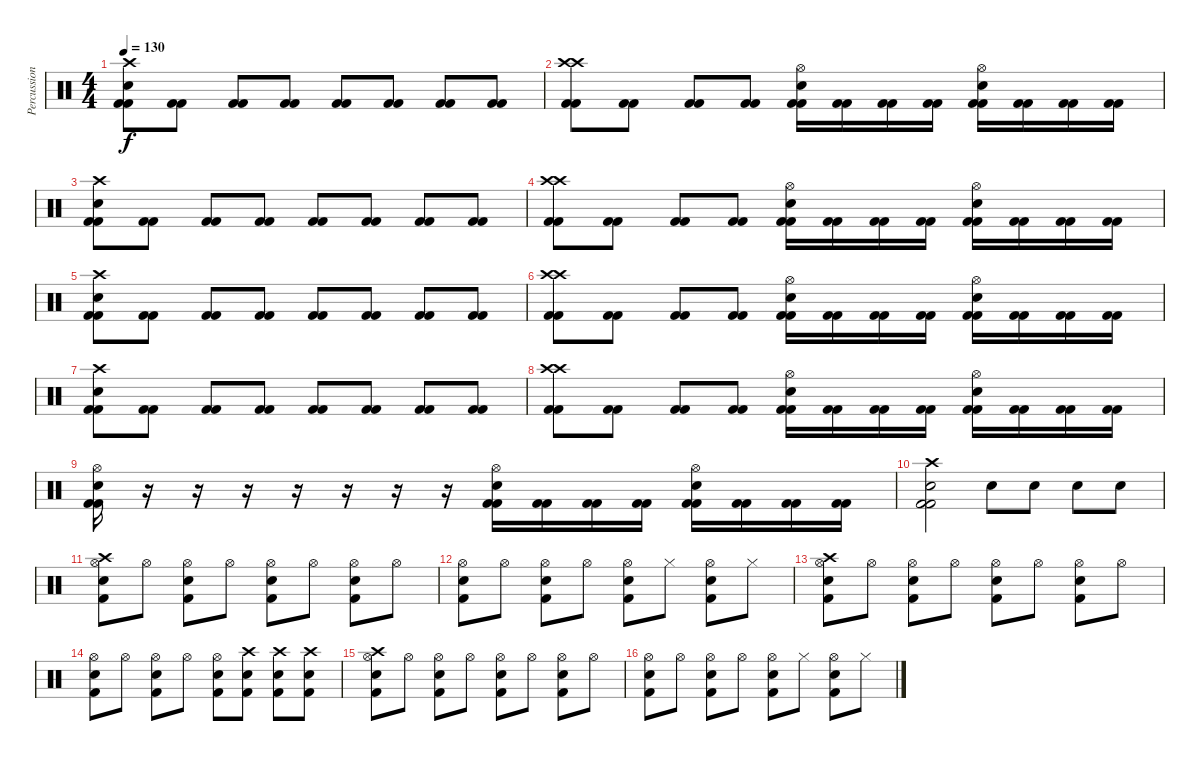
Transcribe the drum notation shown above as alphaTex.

\track ("Percussion" "Percussion") {instrument percussion}
\staff {score}
\articulation defaults
\ts (4 4)
\tempo 130
\clef neutral
\ks c
("Crash high (hit)" "Electric Snare (hit)" "Kick (hit) 2" "Kick (hit) 2").8{dy f} ("Kick (hit) 2" "Kick (hit) 2").8 ("Kick (hit) 2" "Kick (hit) 2").8 ("Kick (hit) 2" "Kick (hit) 2").8 ("Kick (hit) 2" "Kick (hit) 2").8 ("Kick (hit) 2" "Kick (hit) 2").8 ("Kick (hit) 2" "Kick (hit) 2").8 ("Kick (hit) 2" "Kick (hit) 2").8 |
("Crash high (hit)" "Crash high (hit)" "Kick (hit) 2" "Kick (hit) 2").8 ("Kick (hit) 2" "Kick (hit) 2").8 ("Kick (hit) 2" "Kick (hit) 2").8 ("Kick (hit) 2" "Kick (hit) 2").8 ("Hi-Hat (open)" "Electric Snare (hit)" "Kick (hit) 2" "Kick (hit) 2").16 ("Kick (hit) 2" "Kick (hit) 2").16 ("Kick (hit) 2" "Kick (hit) 2").16 ("Kick (hit) 2" "Kick (hit) 2").16 ("Hi-Hat (open)" "Electric Snare (hit)" "Kick (hit) 2" "Kick (hit) 2").16 ("Kick (hit) 2" "Kick (hit) 2").16 ("Kick (hit) 2" "Kick (hit) 2").16 ("Kick (hit) 2" "Kick (hit) 2").16 |
("Crash high (hit)" "Electric Snare (hit)" "Kick (hit) 2" "Kick (hit) 2").8 ("Kick (hit) 2" "Kick (hit) 2").8 ("Kick (hit) 2" "Kick (hit) 2").8 ("Kick (hit) 2" "Kick (hit) 2").8 ("Kick (hit) 2" "Kick (hit) 2").8 ("Kick (hit) 2" "Kick (hit) 2").8 ("Kick (hit) 2" "Kick (hit) 2").8 ("Kick (hit) 2" "Kick (hit) 2").8 |
("Crash high (hit)" "Crash high (hit)" "Kick (hit) 2" "Kick (hit) 2").8 ("Kick (hit) 2" "Kick (hit) 2").8 ("Kick (hit) 2" "Kick (hit) 2").8 ("Kick (hit) 2" "Kick (hit) 2").8 ("Hi-Hat (open)" "Electric Snare (hit)" "Kick (hit) 2" "Kick (hit) 2").16 ("Kick (hit) 2" "Kick (hit) 2").16 ("Kick (hit) 2" "Kick (hit) 2").16 ("Kick (hit) 2" "Kick (hit) 2").16 ("Hi-Hat (open)" "Electric Snare (hit)" "Kick (hit) 2" "Kick (hit) 2").16 ("Kick (hit) 2" "Kick (hit) 2").16 ("Kick (hit) 2" "Kick (hit) 2").16 ("Kick (hit) 2" "Kick (hit) 2").16 |
("Crash high (hit)" "Electric Snare (hit)" "Kick (hit) 2" "Kick (hit) 2").8 ("Kick (hit) 2" "Kick (hit) 2").8 ("Kick (hit) 2" "Kick (hit) 2").8 ("Kick (hit) 2" "Kick (hit) 2").8 ("Kick (hit) 2" "Kick (hit) 2").8 ("Kick (hit) 2" "Kick (hit) 2").8 ("Kick (hit) 2" "Kick (hit) 2").8 ("Kick (hit) 2" "Kick (hit) 2").8 |
("Crash high (hit)" "Crash high (hit)" "Kick (hit) 2" "Kick (hit) 2").8 ("Kick (hit) 2" "Kick (hit) 2").8 ("Kick (hit) 2" "Kick (hit) 2").8 ("Kick (hit) 2" "Kick (hit) 2").8 ("Hi-Hat (open)" "Electric Snare (hit)" "Kick (hit) 2" "Kick (hit) 2").16 ("Kick (hit) 2" "Kick (hit) 2").16 ("Kick (hit) 2" "Kick (hit) 2").16 ("Kick (hit) 2" "Kick (hit) 2").16 ("Hi-Hat (open)" "Electric Snare (hit)" "Kick (hit) 2" "Kick (hit) 2").16 ("Kick (hit) 2" "Kick (hit) 2").16 ("Kick (hit) 2" "Kick (hit) 2").16 ("Kick (hit) 2" "Kick (hit) 2").16 |
("Crash high (hit)" "Electric Snare (hit)" "Kick (hit) 2" "Kick (hit) 2").8 ("Kick (hit) 2" "Kick (hit) 2").8 ("Kick (hit) 2" "Kick (hit) 2").8 ("Kick (hit) 2" "Kick (hit) 2").8 ("Kick (hit) 2" "Kick (hit) 2").8 ("Kick (hit) 2" "Kick (hit) 2").8 ("Kick (hit) 2" "Kick (hit) 2").8 ("Kick (hit) 2" "Kick (hit) 2").8 |
("Crash high (hit)" "Crash high (hit)" "Kick (hit) 2" "Kick (hit) 2").8 ("Kick (hit) 2" "Kick (hit) 2").8 ("Kick (hit) 2" "Kick (hit) 2").8 ("Kick (hit) 2" "Kick (hit) 2").8 ("Hi-Hat (open)" "Electric Snare (hit)" "Kick (hit) 2" "Kick (hit) 2").16 ("Kick (hit) 2" "Kick (hit) 2").16 ("Kick (hit) 2" "Kick (hit) 2").16 ("Kick (hit) 2" "Kick (hit) 2").16 ("Hi-Hat (open)" "Electric Snare (hit)" "Kick (hit) 2" "Kick (hit) 2").16 ("Kick (hit) 2" "Kick (hit) 2").16 ("Kick (hit) 2" "Kick (hit) 2").16 ("Kick (hit) 2" "Kick (hit) 2").16 |
("Hi-Hat (open)" "Electric Snare (hit)" "Kick (hit) 2" "Kick (hit) 2").16 r.16 r.16 r.16 r.16 r.16 r.16 r.16 ("Hi-Hat (open)" "Electric Snare (hit)" "Kick (hit) 2" "Kick (hit) 2").16 ("Kick (hit) 2" "Kick (hit) 2").16 ("Kick (hit) 2" "Kick (hit) 2").16 ("Kick (hit) 2" "Kick (hit) 2").16 ("Hi-Hat (open)" "Electric Snare (hit)" "Kick (hit) 2" "Kick (hit) 2").16 ("Kick (hit) 2" "Kick (hit) 2").16 ("Kick (hit) 2" "Kick (hit) 2").16 ("Kick (hit) 2" "Kick (hit) 2").16 |
("Crash high (hit)" "Electric Snare (hit)" "Kick (hit) 2" "Kick (hit) 2").2 "Electric Snare (hit)".8 "Electric Snare (hit)".8 "Electric Snare (hit)".8 "Electric Snare (hit)".8 |
("Hi-Hat (open)" "Crash high (hit)" "Electric Snare (hit)" "Kick (hit) 2").8 "Hi-Hat (open)".8 ("Hi-Hat (open)" "Electric Snare (hit)" "Kick (hit) 2").8 "Hi-Hat (open)".8 ("Hi-Hat (open)" "Electric Snare (hit)" "Kick (hit) 2").8 "Hi-Hat (open)".8 ("Hi-Hat (open)" "Electric Snare (hit)" "Kick (hit) 2").8 "Hi-Hat (open)".8 |
("Hi-Hat (open)" "Electric Snare (hit)" "Kick (hit) 2").8 "Hi-Hat (open)".8 ("Hi-Hat (open)" "Electric Snare (hit)" "Kick (hit) 2").8 "Hi-Hat (open)".8 ("Hi-Hat (open)" "Electric Snare (hit)" "Kick (hit) 2").8 "Hi-Hat (closed)".8 ("Hi-Hat (open)" "Electric Snare (hit)" "Kick (hit) 2").8 "Hi-Hat (closed)".8 |
("Hi-Hat (open)" "Crash high (hit)" "Electric Snare (hit)" "Kick (hit) 2").8 "Hi-Hat (open)".8 ("Hi-Hat (open)" "Electric Snare (hit)" "Kick (hit) 2").8 "Hi-Hat (open)".8 ("Hi-Hat (open)" "Electric Snare (hit)" "Kick (hit) 2").8 "Hi-Hat (open)".8 ("Hi-Hat (open)" "Electric Snare (hit)" "Kick (hit) 2").8 "Hi-Hat (open)".8 |
("Hi-Hat (open)" "Electric Snare (hit)" "Kick (hit) 2").8 "Hi-Hat (open)".8 ("Hi-Hat (open)" "Electric Snare (hit)" "Kick (hit) 2").8 "Hi-Hat (open)".8 ("Hi-Hat (open)" "Electric Snare (hit)" "Kick (hit) 2").8 ("Crash high (hit)" "Electric Snare (hit)" "Kick (hit) 2").8 ("Crash high (hit)" "Electric Snare (hit)" "Kick (hit) 2").8 ("Crash high (hit)" "Electric Snare (hit)" "Kick (hit) 2").8 |
("Hi-Hat (open)" "Crash high (hit)" "Electric Snare (hit)" "Kick (hit) 2").8 "Hi-Hat (open)".8 ("Hi-Hat (open)" "Electric Snare (hit)" "Kick (hit) 2").8 "Hi-Hat (open)".8 ("Hi-Hat (open)" "Electric Snare (hit)" "Kick (hit) 2").8 "Hi-Hat (open)".8 ("Hi-Hat (open)" "Electric Snare (hit)" "Kick (hit) 2").8 "Hi-Hat (open)".8 |
("Hi-Hat (open)" "Electric Snare (hit)" "Kick (hit) 2").8 "Hi-Hat (open)".8 ("Hi-Hat (open)" "Electric Snare (hit)" "Kick (hit) 2").8 "Hi-Hat (open)".8 ("Hi-Hat (open)" "Electric Snare (hit)" "Kick (hit) 2").8 "Hi-Hat (closed)".8 ("Hi-Hat (open)" "Electric Snare (hit)" "Kick (hit) 2").8 "Hi-Hat (closed)".8
